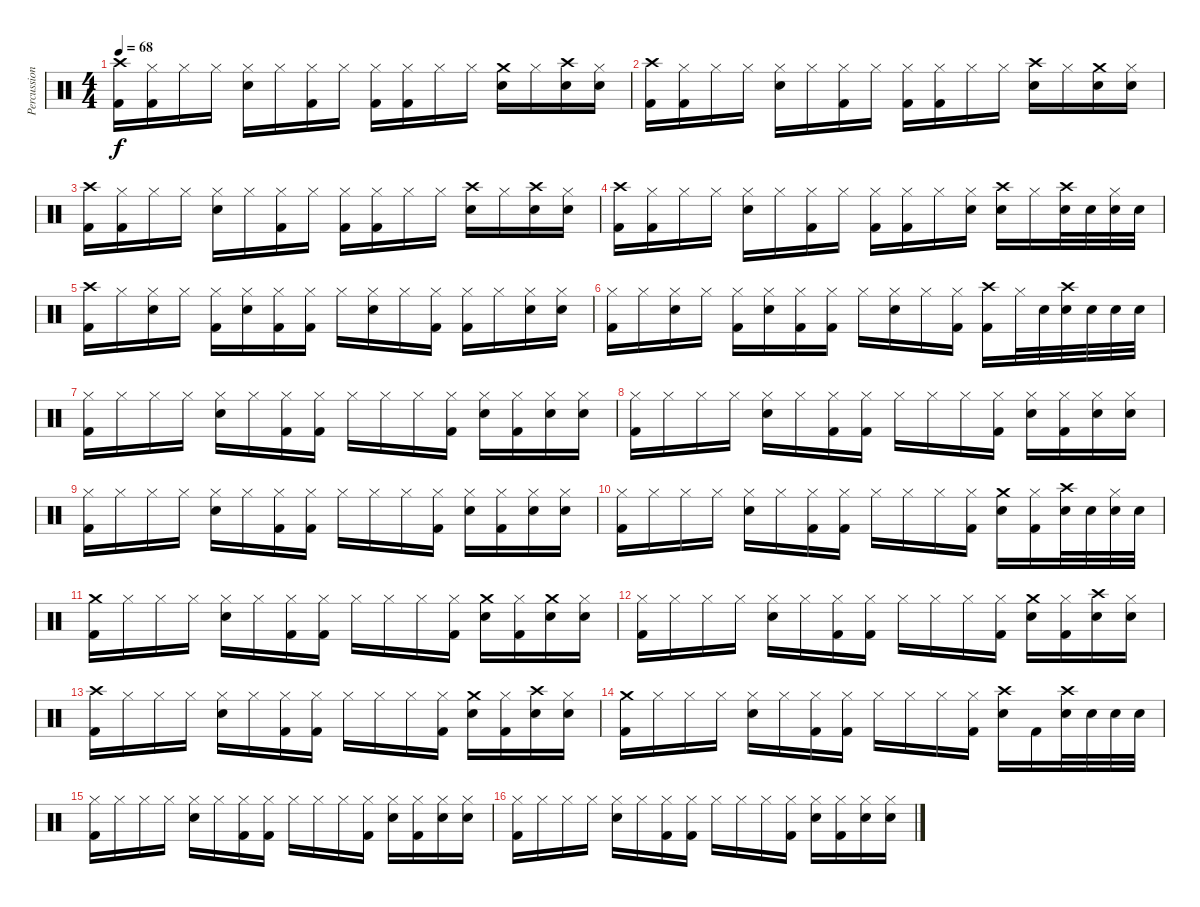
\track ("Percussion" "Percussion") {instrument percussion}
\staff {score}
\articulation defaults
\ts (4 4)
\tempo 68
\clef neutral
\ks c
("Crash high (hit)" "Kick (hit) 2").16{dy f} ("Hi-Hat (closed)" "Kick (hit) 2").16 "Hi-Hat (closed)".16 "Hi-Hat (closed)".16 ("Hi-Hat (closed)" "Electric Snare (hit)").16 "Hi-Hat (closed)".16 ("Hi-Hat (closed)" "Kick (hit) 2").16 "Hi-Hat (closed)".16 ("Hi-Hat (closed)" "Kick (hit) 2").16 ("Hi-Hat (closed)" "Kick (hit) 2").16 "Hi-Hat (closed)".16 "Hi-Hat (closed)".16 ("Crash medium (hit)" "Electric Snare (hit)").16 "Hi-Hat (closed)".16 ("Crash high (hit)" "Electric Snare (hit)").16 ("Hi-Hat (closed)" "Electric Snare (hit)").16 |
("Crash high (hit)" "Kick (hit) 2").16 ("Hi-Hat (closed)" "Kick (hit) 2").16 "Hi-Hat (closed)".16 "Hi-Hat (closed)".16 ("Hi-Hat (closed)" "Electric Snare (hit)").16 "Hi-Hat (closed)".16 ("Hi-Hat (closed)" "Kick (hit) 2").16 "Hi-Hat (closed)".16 ("Hi-Hat (closed)" "Kick (hit) 2").16 ("Hi-Hat (closed)" "Kick (hit) 2").16 "Hi-Hat (closed)".16 "Hi-Hat (closed)".16 ("Crash high (hit)" "Electric Snare (hit)").16 "Hi-Hat (closed)".16 ("Crash medium (hit)" "Electric Snare (hit)").16 ("Hi-Hat (closed)" "Electric Snare (hit)").16 |
("Crash high (hit)" "Kick (hit) 2").16 ("Hi-Hat (closed)" "Kick (hit) 2").16 "Hi-Hat (closed)".16 "Hi-Hat (closed)".16 ("Hi-Hat (closed)" "Electric Snare (hit)").16 "Hi-Hat (closed)".16 ("Hi-Hat (closed)" "Kick (hit) 2").16 "Hi-Hat (closed)".16 ("Hi-Hat (closed)" "Kick (hit) 2").16 ("Hi-Hat (closed)" "Kick (hit) 2").16 "Hi-Hat (closed)".16 "Hi-Hat (closed)".16 ("Crash high (hit)" "Electric Snare (hit)").16 "Hi-Hat (closed)".16 ("Crash high (hit)" "Electric Snare (hit)").16 ("Hi-Hat (closed)" "Electric Snare (hit)").16 |
("Crash high (hit)" "Kick (hit) 2").16 ("Hi-Hat (closed)" "Kick (hit) 2").16 "Hi-Hat (closed)".16 "Hi-Hat (closed)".16 ("Hi-Hat (closed)" "Electric Snare (hit)").16 "Hi-Hat (closed)".16 ("Hi-Hat (closed)" "Kick (hit) 2").16 "Hi-Hat (closed)".16 ("Hi-Hat (closed)" "Kick (hit) 2").16 ("Hi-Hat (closed)" "Kick (hit) 2").16 "Hi-Hat (closed)".16 ("Hi-Hat (closed)" "Electric Snare (hit)").16 ("Crash high (hit)" "Electric Snare (hit)").16 "Hi-Hat (closed)".16 ("Crash high (hit)" "Electric Snare (hit)").32 "Electric Snare (hit)".32 ("Hi-Hat (closed)" "Electric Snare (hit)").32 "Electric Snare (hit)".32 |
("Crash high (hit)" "Kick (hit) 2").16 "Hi-Hat (closed)".16 ("Hi-Hat (closed)" "Electric Snare (hit)").16 "Hi-Hat (closed)".16 ("Hi-Hat (closed)" "Kick (hit) 2").16 ("Hi-Hat (closed)" "Electric Snare (hit)").16 ("Hi-Hat (closed)" "Kick (hit) 2").16 ("Hi-Hat (closed)" "Kick (hit) 2").16 "Hi-Hat (closed)".16 ("Hi-Hat (closed)" "Electric Snare (hit)").16 "Hi-Hat (closed)".16 ("Hi-Hat (closed)" "Kick (hit) 2").16 ("Hi-Hat (closed)" "Kick (hit) 2").16 "Hi-Hat (closed)".16 ("Hi-Hat (closed)" "Electric Snare (hit)").16 ("Hi-Hat (closed)" "Electric Snare (hit)").16 |
("Hi-Hat (closed)" "Kick (hit) 2").16 "Hi-Hat (closed)".16 ("Hi-Hat (closed)" "Electric Snare (hit)").16 "Hi-Hat (closed)".16 ("Hi-Hat (closed)" "Kick (hit) 2").16 ("Hi-Hat (closed)" "Electric Snare (hit)").16 ("Hi-Hat (closed)" "Kick (hit) 2").16 ("Hi-Hat (closed)" "Kick (hit) 2").16 "Hi-Hat (closed)".16 ("Hi-Hat (closed)" "Electric Snare (hit)").16 "Hi-Hat (closed)".16 ("Hi-Hat (closed)" "Kick (hit) 2").16 ("Crash high (hit)" "Kick (hit) 2").16 "Hi-Hat (closed)".32 "Electric Snare (hit)".32 ("Crash high (hit)" "Electric Snare (hit)").32 "Electric Snare (hit)".32 "Electric Snare (hit)".32 "Electric Snare (hit)".32 |
("Hi-Hat (closed)" "Kick (hit) 2").16 "Hi-Hat (closed)".16 "Hi-Hat (closed)".16 "Hi-Hat (closed)".16 ("Hi-Hat (closed)" "Electric Snare (hit)").16 "Hi-Hat (closed)".16 ("Hi-Hat (closed)" "Kick (hit) 2").16 ("Hi-Hat (closed)" "Kick (hit) 2").16 "Hi-Hat (closed)".16 "Hi-Hat (closed)".16 "Hi-Hat (closed)".16 ("Hi-Hat (closed)" "Kick (hit) 2").16 ("Hi-Hat (closed)" "Electric Snare (hit)").16 ("Hi-Hat (closed)" "Kick (hit) 2").16 ("Hi-Hat (closed)" "Electric Snare (hit)").16 ("Hi-Hat (closed)" "Electric Snare (hit)").16 |
("Hi-Hat (closed)" "Kick (hit) 2").16 "Hi-Hat (closed)".16 "Hi-Hat (closed)".16 "Hi-Hat (closed)".16 ("Hi-Hat (closed)" "Electric Snare (hit)").16 "Hi-Hat (closed)".16 ("Hi-Hat (closed)" "Kick (hit) 2").16 ("Hi-Hat (closed)" "Kick (hit) 2").16 "Hi-Hat (closed)".16 "Hi-Hat (closed)".16 "Hi-Hat (closed)".16 ("Hi-Hat (closed)" "Kick (hit) 2").16 ("Hi-Hat (closed)" "Electric Snare (hit)").16 ("Hi-Hat (closed)" "Kick (hit) 2").16 ("Hi-Hat (closed)" "Electric Snare (hit)").16 ("Hi-Hat (closed)" "Electric Snare (hit)").16 |
("Hi-Hat (closed)" "Kick (hit) 2").16 "Hi-Hat (closed)".16 "Hi-Hat (closed)".16 "Hi-Hat (closed)".16 ("Hi-Hat (closed)" "Electric Snare (hit)").16 "Hi-Hat (closed)".16 ("Hi-Hat (closed)" "Kick (hit) 2").16 ("Hi-Hat (closed)" "Kick (hit) 2").16 "Hi-Hat (closed)".16 "Hi-Hat (closed)".16 "Hi-Hat (closed)".16 ("Hi-Hat (closed)" "Kick (hit) 2").16 ("Hi-Hat (closed)" "Electric Snare (hit)").16 ("Hi-Hat (closed)" "Kick (hit) 2").16 ("Hi-Hat (closed)" "Electric Snare (hit)").16 ("Hi-Hat (closed)" "Electric Snare (hit)").16 |
("Hi-Hat (closed)" "Kick (hit) 2").16 "Hi-Hat (closed)".16 "Hi-Hat (closed)".16 "Hi-Hat (closed)".16 ("Hi-Hat (closed)" "Electric Snare (hit)").16 "Hi-Hat (closed)".16 ("Hi-Hat (closed)" "Kick (hit) 2").16 ("Hi-Hat (closed)" "Kick (hit) 2").16 "Hi-Hat (closed)".16 "Hi-Hat (closed)".16 "Hi-Hat (closed)".16 ("Hi-Hat (closed)" "Kick (hit) 2").16 ("Crash medium (hit)" "Electric Snare (hit)").16 ("Hi-Hat (closed)" "Kick (hit) 2").16 ("Crash high (hit)" "Electric Snare (hit)").32 "Electric Snare (hit)".32 ("Hi-Hat (closed)" "Electric Snare (hit)").32 "Electric Snare (hit)".32 |
("Crash medium (hit)" "Kick (hit) 2").16 "Hi-Hat (closed)".16 "Hi-Hat (closed)".16 "Hi-Hat (closed)".16 ("Hi-Hat (closed)" "Electric Snare (hit)").16 "Hi-Hat (closed)".16 ("Hi-Hat (closed)" "Kick (hit) 2").16 ("Hi-Hat (closed)" "Kick (hit) 2").16 "Hi-Hat (closed)".16 "Hi-Hat (closed)".16 "Hi-Hat (closed)".16 ("Hi-Hat (closed)" "Kick (hit) 2").16 ("Crash medium (hit)" "Electric Snare (hit)").16 ("Hi-Hat (closed)" "Kick (hit) 2").16 ("Crash medium (hit)" "Electric Snare (hit)").16 ("Hi-Hat (closed)" "Electric Snare (hit)").16 |
("Hi-Hat (closed)" "Kick (hit) 2").16 "Hi-Hat (closed)".16 "Hi-Hat (closed)".16 "Hi-Hat (closed)".16 ("Hi-Hat (closed)" "Electric Snare (hit)").16 "Hi-Hat (closed)".16 ("Hi-Hat (closed)" "Kick (hit) 2").16 ("Hi-Hat (closed)" "Kick (hit) 2").16 "Hi-Hat (closed)".16 "Hi-Hat (closed)".16 "Hi-Hat (closed)".16 ("Hi-Hat (closed)" "Kick (hit) 2").16 ("Crash medium (hit)" "Electric Snare (hit)").16 ("Hi-Hat (closed)" "Kick (hit) 2").16 ("Crash high (hit)" "Electric Snare (hit)").16 ("Hi-Hat (closed)" "Electric Snare (hit)").16 |
("Crash high (hit)" "Kick (hit) 2").16 "Hi-Hat (closed)".16 "Hi-Hat (closed)".16 "Hi-Hat (closed)".16 ("Hi-Hat (closed)" "Electric Snare (hit)").16 "Hi-Hat (closed)".16 ("Hi-Hat (closed)" "Kick (hit) 2").16 ("Hi-Hat (closed)" "Kick (hit) 2").16 "Hi-Hat (closed)".16 "Hi-Hat (closed)".16 "Hi-Hat (closed)".16 ("Hi-Hat (closed)" "Kick (hit) 2").16 ("Crash medium (hit)" "Electric Snare (hit)").16 ("Hi-Hat (closed)" "Kick (hit) 2").16 ("Crash high (hit)" "Electric Snare (hit)").16 ("Hi-Hat (closed)" "Electric Snare (hit)").16 |
("Crash medium (hit)" "Kick (hit) 2").16 "Hi-Hat (closed)".16 "Hi-Hat (closed)".16 "Hi-Hat (closed)".16 ("Hi-Hat (closed)" "Electric Snare (hit)").16 "Hi-Hat (closed)".16 ("Hi-Hat (closed)" "Kick (hit) 2").16 ("Hi-Hat (closed)" "Kick (hit) 2").16 "Hi-Hat (closed)".16 "Hi-Hat (closed)".16 "Hi-Hat (closed)".16 ("Hi-Hat (closed)" "Kick (hit) 2").16 ("Crash high (hit)" "Electric Snare (hit)").16 "Kick (hit) 2".16 ("Crash high (hit)" "Snare (hit) 2").32 "Snare (hit) 2".32 "Electric Snare (hit)".32 "Electric Snare (hit)".32 |
("Hi-Hat (closed)" "Kick (hit) 2").16 "Hi-Hat (closed)".16 "Hi-Hat (closed)".16 "Hi-Hat (closed)".16 ("Hi-Hat (closed)" "Electric Snare (hit)").16 "Hi-Hat (closed)".16 ("Hi-Hat (closed)" "Kick (hit) 2").16 ("Hi-Hat (closed)" "Kick (hit) 2").16 "Hi-Hat (closed)".16 "Hi-Hat (closed)".16 "Hi-Hat (closed)".16 ("Hi-Hat (closed)" "Kick (hit) 2").16 ("Hi-Hat (closed)" "Electric Snare (hit)").16 ("Hi-Hat (closed)" "Kick (hit) 2").16 ("Hi-Hat (closed)" "Electric Snare (hit)").16 ("Hi-Hat (closed)" "Electric Snare (hit)").16 |
("Hi-Hat (closed)" "Kick (hit) 2").16 "Hi-Hat (closed)".16 "Hi-Hat (closed)".16 "Hi-Hat (closed)".16 ("Hi-Hat (closed)" "Electric Snare (hit)").16 "Hi-Hat (closed)".16 ("Hi-Hat (closed)" "Kick (hit) 2").16 ("Hi-Hat (closed)" "Kick (hit) 2").16 "Hi-Hat (closed)".16 "Hi-Hat (closed)".16 "Hi-Hat (closed)".16 ("Hi-Hat (closed)" "Kick (hit) 2").16 ("Hi-Hat (closed)" "Electric Snare (hit)").16 ("Hi-Hat (closed)" "Kick (hit) 2").16 ("Hi-Hat (closed)" "Electric Snare (hit)").16 ("Hi-Hat (closed)" "Electric Snare (hit)").16
